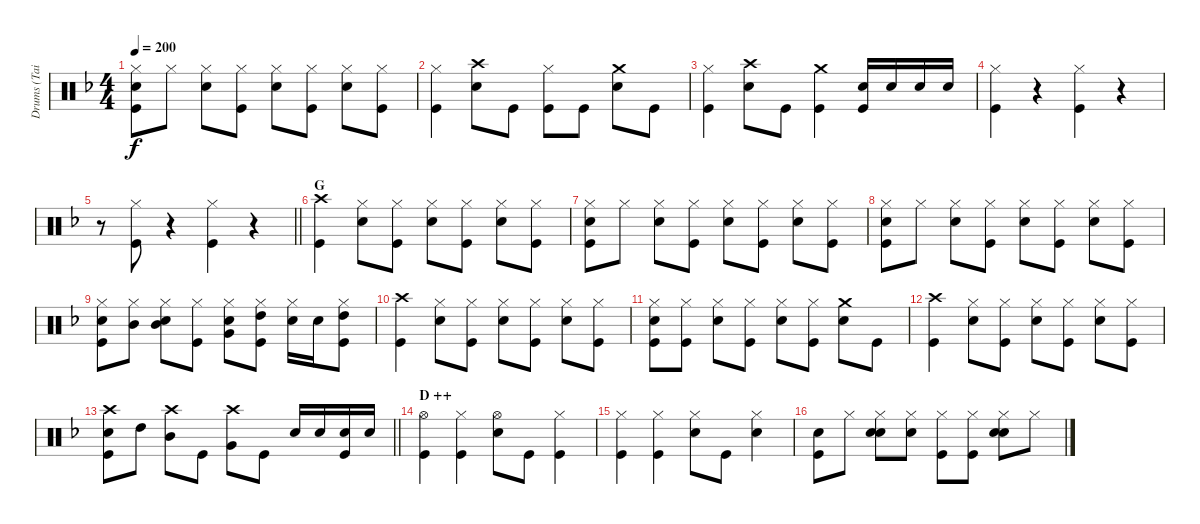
\track ("Drums (Tainaka Ritsu)" "Drums (Tai") {instrument percussion}
\staff {score}
\articulation defaults
\ts (4 4)
\tempo 200
\clef neutral
\ks f
("Hi-Hat (closed)" "Snare (hit) 2" "Kick (hit)").8{dy f} "Hi-Hat (closed)".8 ("Hi-Hat (closed)" "Snare (hit) 2").8 ("Hi-Hat (closed)" "Kick (hit)").8 ("Hi-Hat (closed)" "Snare (hit) 2").8 ("Hi-Hat (closed)" "Kick (hit)").8 ("Hi-Hat (closed)" "Snare (hit) 2").8 ("Hi-Hat (closed)" "Kick (hit)").8 |
("Hi-Hat (closed)" "Kick (hit)").4 ("Crash high (hit)" "Snare (hit) 2").8 "Kick (hit)".8 ("Hi-Hat (closed)" "Kick (hit)").8 "Kick (hit)".8 ("Crash medium (hit)" "Snare (hit) 2").8 "Kick (hit)".8 |
("Hi-Hat (closed)" "Kick (hit)").4 ("Crash high (hit)" "Snare (hit) 2").8 "Kick (hit)".8 ("Crash medium (hit)" "Kick (hit)").4 ("Snare (hit) 2" "Kick (hit)").16 "Snare (hit) 2".16 "Snare (hit) 2".16 "Snare (hit) 2".16 |
("Hi-Hat (closed)" "Kick (hit)").4 r.4 ("Hi-Hat (closed)" "Kick (hit)").4 r.4 |
\barLineRight lightlight
r.8 ("Hi-Hat (closed)" "Kick (hit)").8 r.4 ("Hi-Hat (closed)" "Kick (hit)").4 r.4 |
\section ("" "G")
("Crash high (hit)" "Kick (hit)").4 ("Hi-Hat (closed)" "Snare (hit) 2").8 ("Hi-Hat (closed)" "Kick (hit)").8 ("Hi-Hat (closed)" "Snare (hit) 2").8 ("Hi-Hat (closed)" "Kick (hit)").8 ("Hi-Hat (closed)" "Snare (hit) 2").8 ("Hi-Hat (closed)" "Kick (hit)").8 |
("Hi-Hat (closed)" "Snare (hit) 2" "Kick (hit)").8 "Hi-Hat (closed)".8 ("Hi-Hat (closed)" "Snare (hit) 2").8 ("Hi-Hat (closed)" "Kick (hit)").8 ("Hi-Hat (closed)" "Snare (hit) 2").8 ("Hi-Hat (closed)" "Kick (hit)").8 ("Hi-Hat (closed)" "Snare (hit) 2").8 ("Hi-Hat (closed)" "Kick (hit)").8 |
("Hi-Hat (closed)" "Snare (hit) 2" "Kick (hit)").8 "Hi-Hat (closed)".8 ("Hi-Hat (closed)" "Snare (hit) 2").8 ("Hi-Hat (closed)" "Kick (hit)").8 ("Hi-Hat (closed)" "Snare (hit) 2").8 ("Hi-Hat (closed)" "Kick (hit)").8 ("Hi-Hat (closed)" "Snare (hit) 2").8 ("Hi-Hat (closed)" "Kick (hit)").8 |
("Hi-Hat (closed)" "Snare (hit) 2" "Kick (hit)").8 ("Hi-Hat (closed)" "Mid Tom (hit)").8 ("Hi-Hat (closed)" "Snare (hit) 2" "Mid Tom (hit)").8 ("Hi-Hat (closed)" "Kick (hit)").8 ("Hi-Hat (closed)" "Snare (hit) 2" "Very Low Tom (hit)").8 ("Hi-Hat (closed)" "High Tom (hit)" "Kick (hit)").8 ("Hi-Hat (closed)" "Snare (hit) 2").16 "Snare (hit) 2".16 ("Hi-Hat (closed)" "High Tom (hit)" "Kick (hit)").8 |
("Crash high (hit)" "Kick (hit)").4 ("Hi-Hat (closed)" "Snare (hit) 2").8 ("Hi-Hat (closed)" "Kick (hit)").8 ("Hi-Hat (closed)" "Snare (hit) 2").8 ("Hi-Hat (closed)" "Kick (hit)").8 ("Hi-Hat (closed)" "Snare (hit) 2").8 ("Hi-Hat (closed)" "Kick (hit)").8 |
("Hi-Hat (closed)" "Snare (hit) 2" "Kick (hit)").8 ("Hi-Hat (closed)" "Kick (hit)").8 ("Hi-Hat (closed)" "Snare (hit) 2").8 ("Hi-Hat (closed)" "Kick (hit)").8 ("Hi-Hat (closed)" "Snare (hit) 2").8 ("Hi-Hat (closed)" "Kick (hit)").8 ("Crash medium (hit)" "Snare (hit) 2").8 "Kick (hit)".8 |
("Crash high (hit)" "Kick (hit)").4 ("Hi-Hat (closed)" "Snare (hit) 2").8 ("Hi-Hat (closed)" "Kick (hit)").8 ("Hi-Hat (closed)" "Snare (hit) 2").8 ("Hi-Hat (closed)" "Kick (hit)").8 ("Hi-Hat (closed)" "Snare (hit) 2").8 ("Hi-Hat (closed)" "Kick (hit)").8 |
\barLineRight lightlight
("Crash high (hit)" "Snare (hit) 2" "Kick (hit)").8 "High Tom (hit)".8 ("Crash high (hit)" "Mid Tom (hit)").8 "Kick (hit)".8 ("Crash high (hit)" "Very Low Tom (hit)").8 "Kick (hit)".8 "Snare (hit) 2".16 "Snare (hit) 2".16 ("Snare (hit) 2" "Kick (hit)").16 "Snare (hit) 2".16 |
\section ("" "D ++")
("Hi-Hat (open)" "Kick (hit)").4 ("Hi-Hat (closed)" "Kick (hit)").4 ("Hi-Hat (open)" "Snare (hit) 2").8 "Kick (hit)".8 ("Hi-Hat (closed)" "Kick (hit)").4 |
("Hi-Hat (closed)" "Kick (hit)").4 ("Hi-Hat (closed)" "Kick (hit)").4 ("Hi-Hat (closed)" "Snare (hit) 2").8 "Kick (hit)".8 ("Hi-Hat (closed)" "Snare (hit) 2").4 |
("Hand Clap (hit)" "Kick (hit)").8 "Hi-Hat (closed)".8 ("Hi-Hat (closed)" "Hand Clap (hit)" "Snare (hit) 2").8 ("Hi-Hat (closed)" "Snare (hit) 2").8 ("Hi-Hat (closed)" "Kick (hit)").8 ("Hi-Hat (closed)" "Kick (hit)").8 ("Hi-Hat (closed)" "Hand Clap (hit)" "Snare (hit) 2").8 "Hi-Hat (closed)".8
